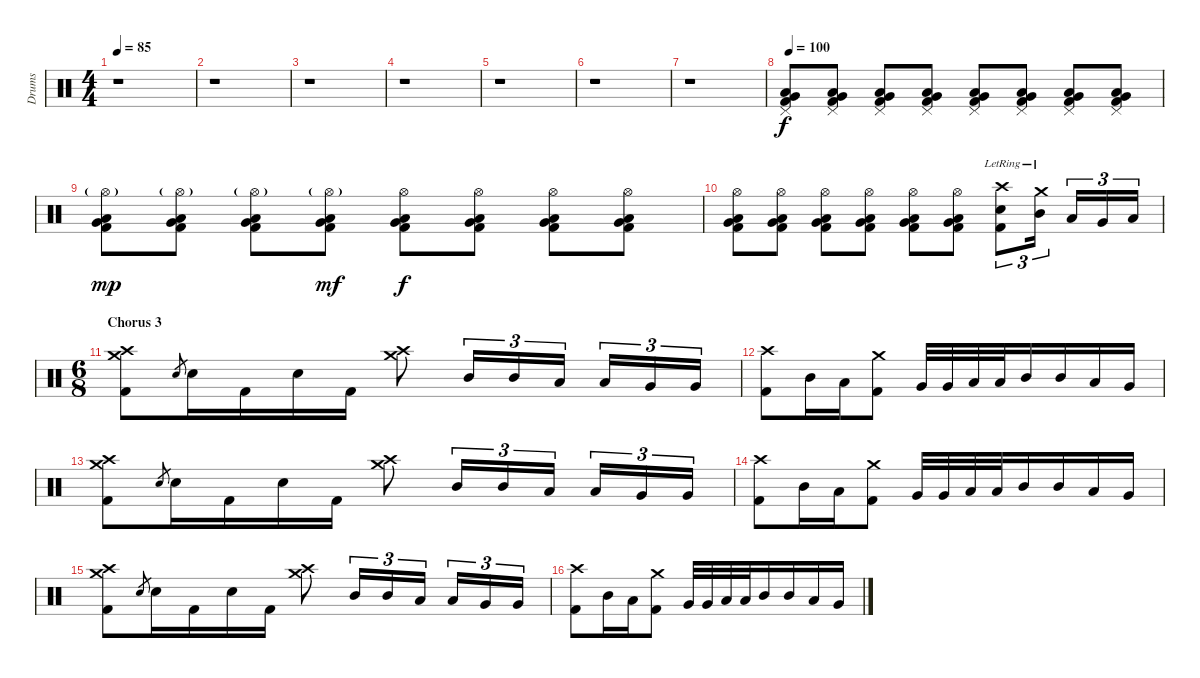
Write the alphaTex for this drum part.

\track ("Drums" "Drums") {instrument percussion}
\staff {score}
\articulation defaults
\ts (4 4)
\tempo 85
\clef neutral
\ks c
r.1{dy f} |
r.1 |
r.1 |
r.1 |
r.1 |
r.1 |
r.1{volume 0} |
\tempo 100
("Very Low Tom (hit)" "Low Floor Tom (hit)" "Pedal Hi-Hat (hit)" "Kick (hit) 2").8{volume 11} ("Very Low Tom (hit)" "Low Floor Tom (hit)" "Pedal Hi-Hat (hit)" "Kick (hit) 2").8 ("Very Low Tom (hit)" "Low Floor Tom (hit)" "Pedal Hi-Hat (hit)" "Kick (hit) 2").8 ("Very Low Tom (hit)" "Low Floor Tom (hit)" "Pedal Hi-Hat (hit)" "Kick (hit) 2").8 ("Very Low Tom (hit)" "Low Floor Tom (hit)" "Pedal Hi-Hat (hit)" "Kick (hit) 2").8 ("Very Low Tom (hit)" "Low Floor Tom (hit)" "Pedal Hi-Hat (hit)" "Kick (hit) 2").8 ("Very Low Tom (hit)" "Low Floor Tom (hit)" "Pedal Hi-Hat (hit)" "Kick (hit) 2").8 ("Very Low Tom (hit)" "Low Floor Tom (hit)" "Pedal Hi-Hat (hit)" "Kick (hit) 2").8 |
("Hi-Hat (open)"{g} "Low Floor Tom (hit)" "Very Low Tom (hit)" "Kick (hit) 2").8{dy mp} ("Hi-Hat (open)"{g} "Low Floor Tom (hit)" "Very Low Tom (hit)" "Kick (hit) 2").8 ("Hi-Hat (open)"{g} "Low Floor Tom (hit)" "Very Low Tom (hit)" "Kick (hit) 2").8 ("Hi-Hat (open)"{g} "Low Floor Tom (hit)" "Very Low Tom (hit)" "Kick (hit) 2").8{dy mf} ("Hi-Hat (open)" "Low Floor Tom (hit)" "Very Low Tom (hit)" "Kick (hit) 2").8{dy f} ("Hi-Hat (open)" "Low Floor Tom (hit)" "Very Low Tom (hit)" "Kick (hit) 2").8 ("Hi-Hat (open)" "Low Floor Tom (hit)" "Very Low Tom (hit)" "Kick (hit) 2").8 ("Hi-Hat (open)" "Low Floor Tom (hit)" "Very Low Tom (hit)" "Kick (hit) 2").8 |
("Hi-Hat (open)" "Low Floor Tom (hit)" "Very Low Tom (hit)" "Kick (hit) 2").8 ("Hi-Hat (open)" "Low Floor Tom (hit)" "Very Low Tom (hit)" "Kick (hit) 2").8 ("Hi-Hat (open)" "Low Floor Tom (hit)" "Very Low Tom (hit)" "Kick (hit) 2").8 ("Hi-Hat (open)" "Low Floor Tom (hit)" "Very Low Tom (hit)" "Kick (hit) 2").8 ("Hi-Hat (open)" "Low Floor Tom (hit)" "Very Low Tom (hit)" "Kick (hit) 2").8 ("Hi-Hat (open)" "Low Floor Tom (hit)" "Very Low Tom (hit)" "Kick (hit) 2").8 ("Crash high (hit)"{lr} "Electric Snare (hit)" "Kick (hit) 2").8{tu (3 2)} ("Crash medium (hit)"{lr} "Mid Tom (hit)").16{tu (3 2)} "Low Tom (hit)".16{tu (3 2)} "Very Low Tom (hit)".16{tu (3 2)} "Low Floor Tom (hit)".16{tu (3 2)} |
\ts (6 8)
\section ("" "Chorus 3")
("Crash high (hit)" "Crash medium (hit)" "Kick (hit) 2").8 "Electric Snare (hit)".8{gr} "Electric Snare (hit)".16 "Kick (hit) 2".16 "Electric Snare (hit)".16 "Kick (hit) 2".16 ("Crash high (hit)" "Crash medium (hit)").8 "Mid Tom (hit)".16{tu (3 2)} "Mid Tom (hit)".16{tu (3 2)} "Low Tom (hit)".16{tu (3 2)} "Low Tom (hit)".16{tu (3 2)} "Very Low Tom (hit)".16{tu (3 2)} "Very Low Tom (hit)".16{tu (3 2)} |
("Crash high (hit)" "Kick (hit) 2").8 "Mid Tom (hit)".16 "Low Tom (hit)".16 ("Crash medium (hit)" "Kick (hit) 2").8 "Very Low Tom (hit)".32 "Very Low Tom (hit)".32 "Low Tom (hit)".32 "Low Tom (hit)".32 "Mid Tom (hit)".16 "Mid Tom (hit)".16 "Low Tom (hit)".16 "Very Low Tom (hit)".16 |
("Crash high (hit)" "Crash medium (hit)" "Kick (hit) 2").8 "Electric Snare (hit)".8{gr} "Electric Snare (hit)".16 "Kick (hit) 2".16 "Electric Snare (hit)".16 "Kick (hit) 2".16 ("Crash high (hit)" "Crash medium (hit)").8 "Mid Tom (hit)".16{tu (3 2)} "Mid Tom (hit)".16{tu (3 2)} "Low Tom (hit)".16{tu (3 2)} "Low Tom (hit)".16{tu (3 2)} "Very Low Tom (hit)".16{tu (3 2)} "Very Low Tom (hit)".16{tu (3 2)} |
("Crash high (hit)" "Kick (hit) 2").8 "Mid Tom (hit)".16 "Low Tom (hit)".16 ("Crash medium (hit)" "Kick (hit) 2").8 "Very Low Tom (hit)".32 "Very Low Tom (hit)".32 "Low Tom (hit)".32 "Low Tom (hit)".32 "Mid Tom (hit)".16 "Mid Tom (hit)".16 "Low Tom (hit)".16 "Very Low Tom (hit)".16 |
("Crash high (hit)" "Crash medium (hit)" "Kick (hit) 2").8 "Electric Snare (hit)".8{gr} "Electric Snare (hit)".16 "Kick (hit) 2".16 "Electric Snare (hit)".16 "Kick (hit) 2".16 ("Crash high (hit)" "Crash medium (hit)").8 "Mid Tom (hit)".16{tu (3 2)} "Mid Tom (hit)".16{tu (3 2)} "Low Tom (hit)".16{tu (3 2)} "Low Tom (hit)".16{tu (3 2)} "Very Low Tom (hit)".16{tu (3 2)} "Very Low Tom (hit)".16{tu (3 2)} |
("Crash high (hit)" "Kick (hit) 2").8 "Mid Tom (hit)".16 "Low Tom (hit)".16 ("Crash medium (hit)" "Kick (hit) 2").8 "Very Low Tom (hit)".32 "Very Low Tom (hit)".32 "Low Tom (hit)".32 "Low Tom (hit)".32 "Mid Tom (hit)".16 "Mid Tom (hit)".16 "Low Tom (hit)".16 "Very Low Tom (hit)".16
